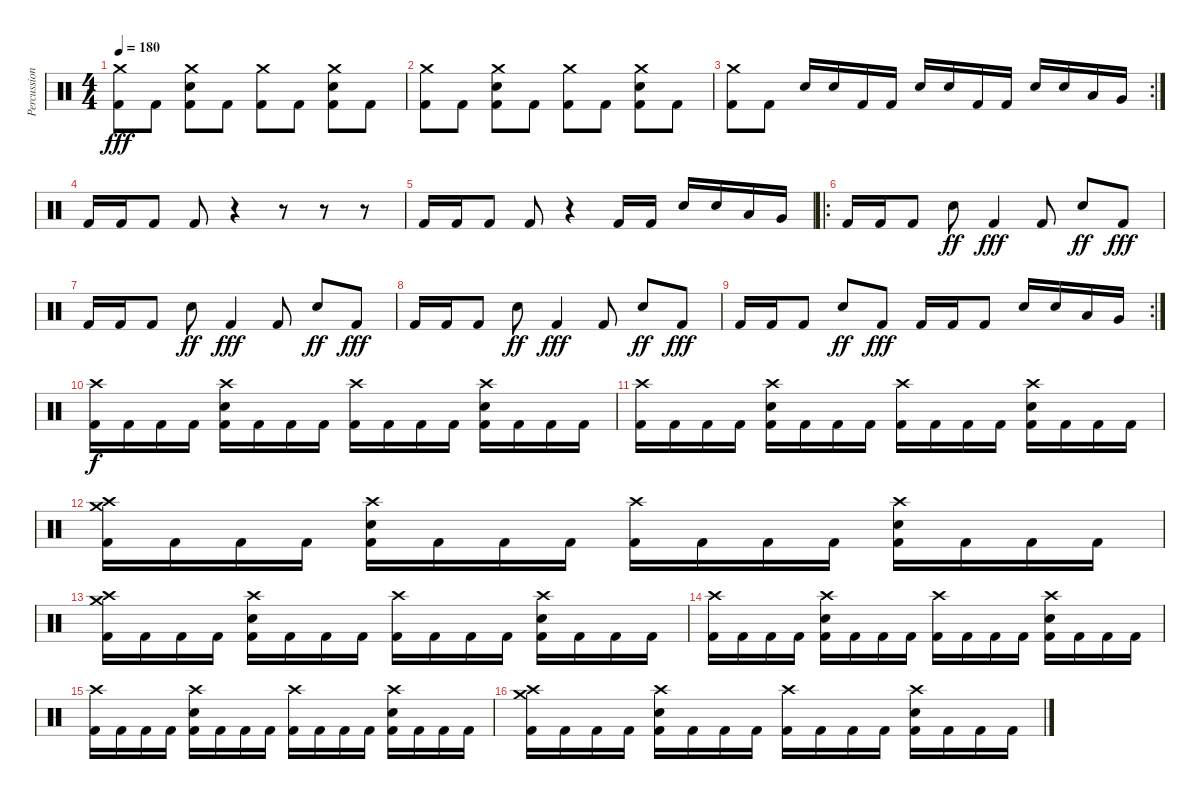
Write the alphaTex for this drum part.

\track ("Percussion (Francisco Izquierdo)" "Percussion") {instrument percussion}
\staff {score}
\articulation defaults
\ts (4 4)
\tempo 180
\clef neutral
\ks c
("Crash medium (hit)" "Kick (hit) 2").8{dy fff} "Kick (hit) 2".8 ("Crash medium (hit)" "Electric Snare (hit)" "Kick (hit) 2").8 "Kick (hit) 2".8 ("Crash medium (hit)" "Kick (hit) 2").8 "Kick (hit) 2".8 ("Crash medium (hit)" "Electric Snare (hit)" "Kick (hit) 2").8 "Kick (hit) 2".8 |
("Crash medium (hit)" "Kick (hit) 2").8 "Kick (hit) 2".8 ("Crash medium (hit)" "Electric Snare (hit)" "Kick (hit) 2").8 "Kick (hit) 2".8 ("Crash medium (hit)" "Kick (hit) 2").8 "Kick (hit) 2".8 ("Crash medium (hit)" "Electric Snare (hit)" "Kick (hit) 2").8 "Kick (hit) 2".8 |
\rc 2
("Crash medium (hit)" "Kick (hit) 2").8 "Kick (hit) 2".8 "Electric Snare (hit)".16 "Electric Snare (hit)".16 "Kick (hit) 2".16 "Kick (hit) 2".16 "Electric Snare (hit)".16 "Electric Snare (hit)".16 "Kick (hit) 2".16 "Kick (hit) 2".16 "Electric Snare (hit)".16 "Electric Snare (hit)".16 "Low Tom (hit)".16 "Very Low Tom (hit)".16 |
"Kick (hit) 2".16 "Kick (hit) 2".16 "Kick (hit) 2".8 "Kick (hit) 2".8 r.4 r.8 r.8 r.8 |
"Kick (hit) 2".16 "Kick (hit) 2".16 "Kick (hit) 2".8 "Kick (hit) 2".8 r.4 "Kick (hit) 2".16 "Kick (hit) 2".16 "Electric Snare (hit)".16 "Electric Snare (hit)".16 "Low Tom (hit)".16 "Very Low Tom (hit)".16 |
\ro "Kick (hit) 2".16 "Kick (hit) 2".16 "Kick (hit) 2".8 "Electric Snare (hit)".8{dy ff} "Kick (hit) 2".4{dy fff} "Kick (hit) 2".8 "Electric Snare (hit)".8{dy ff} "Kick (hit) 2".8{dy fff}
|
"Kick (hit) 2".16 "Kick (hit) 2".16 "Kick (hit) 2".8 "Electric Snare (hit)".8{dy ff} "Kick (hit) 2".4{dy fff} "Kick (hit) 2".8 "Electric Snare (hit)".8{dy ff} "Kick (hit) 2".8{dy fff} |
"Kick (hit) 2".16 "Kick (hit) 2".16 "Kick (hit) 2".8 "Electric Snare (hit)".8{dy ff} "Kick (hit) 2".4{dy fff} "Kick (hit) 2".8 "Electric Snare (hit)".8{dy ff} "Kick (hit) 2".8{dy fff} |
\rc 2 "Kick (hit) 2".16 "Kick (hit) 2".16 "Kick (hit) 2".8 "Electric Snare (hit)".8{dy ff} "Kick (hit) 2".8{dy fff} "Kick (hit) 2".16 "Kick (hit) 2".16 "Kick (hit) 2".8 "Electric Snare (hit)".16 "Electric Snare (hit)".16 "Low Tom (hit)".16 "Very Low Tom (hit)".16
|
("Crash high (hit)" "Kick (hit) 2").16{dy f} "Kick (hit) 2".16 "Kick (hit) 2".16 "Kick (hit) 2".16 ("Crash high (hit)" "Electric Snare (hit)" "Kick (hit) 2").16 "Kick (hit) 2".16 "Kick (hit) 2".16 "Kick (hit) 2".16 ("Crash high (hit)" "Kick (hit) 2").16 "Kick (hit) 2".16 "Kick (hit) 2".16 "Kick (hit) 2".16 ("Crash high (hit)" "Electric Snare (hit)" "Kick (hit) 2").16 "Kick (hit) 2".16 "Kick (hit) 2".16 "Kick (hit) 2".16 |
("Crash high (hit)" "Kick (hit) 2").16 "Kick (hit) 2".16 "Kick (hit) 2".16 "Kick (hit) 2".16 ("Crash high (hit)" "Electric Snare (hit)" "Kick (hit) 2").16 "Kick (hit) 2".16 "Kick (hit) 2".16 "Kick (hit) 2".16 ("Crash high (hit)" "Kick (hit) 2").16 "Kick (hit) 2".16 "Kick (hit) 2".16 "Kick (hit) 2".16 ("Crash high (hit)" "Electric Snare (hit)" "Kick (hit) 2").16 "Kick (hit) 2".16 "Kick (hit) 2".16 "Kick (hit) 2".16 |
("Crash high (hit)" "Crash medium (hit)" "Kick (hit) 2").16 "Kick (hit) 2".16 "Kick (hit) 2".16 "Kick (hit) 2".16 ("Crash high (hit)" "Electric Snare (hit)" "Kick (hit) 2").16 "Kick (hit) 2".16 "Kick (hit) 2".16 "Kick (hit) 2".16 ("Crash high (hit)" "Kick (hit) 2").16 "Kick (hit) 2".16 "Kick (hit) 2".16 "Kick (hit) 2".16 ("Crash high (hit)" "Electric Snare (hit)" "Kick (hit) 2").16 "Kick (hit) 2".16 "Kick (hit) 2".16 "Kick (hit) 2".16 |
("Crash high (hit)" "Crash medium (hit)" "Kick (hit) 2").16 "Kick (hit) 2".16 "Kick (hit) 2".16 "Kick (hit) 2".16 ("Crash high (hit)" "Electric Snare (hit)" "Kick (hit) 2").16 "Kick (hit) 2".16 "Kick (hit) 2".16 "Kick (hit) 2".16 ("Crash high (hit)" "Kick (hit) 2").16 "Kick (hit) 2".16 "Kick (hit) 2".16 "Kick (hit) 2".16 ("Crash high (hit)" "Electric Snare (hit)" "Kick (hit) 2").16 "Kick (hit) 2".16 "Kick (hit) 2".16 "Kick (hit) 2".16 |
("Crash high (hit)" "Kick (hit) 2").16 "Kick (hit) 2".16 "Kick (hit) 2".16 "Kick (hit) 2".16 ("Crash high (hit)" "Electric Snare (hit)" "Kick (hit) 2").16 "Kick (hit) 2".16 "Kick (hit) 2".16 "Kick (hit) 2".16 ("Crash high (hit)" "Kick (hit) 2").16 "Kick (hit) 2".16 "Kick (hit) 2".16 "Kick (hit) 2".16 ("Crash high (hit)" "Electric Snare (hit)" "Kick (hit) 2").16 "Kick (hit) 2".16 "Kick (hit) 2".16 "Kick (hit) 2".16 |
("Crash high (hit)" "Kick (hit) 2").16 "Kick (hit) 2".16 "Kick (hit) 2".16 "Kick (hit) 2".16 ("Crash high (hit)" "Electric Snare (hit)" "Kick (hit) 2").16 "Kick (hit) 2".16 "Kick (hit) 2".16 "Kick (hit) 2".16 ("Crash high (hit)" "Kick (hit) 2").16 "Kick (hit) 2".16 "Kick (hit) 2".16 "Kick (hit) 2".16 ("Crash high (hit)" "Electric Snare (hit)" "Kick (hit) 2").16 "Kick (hit) 2".16 "Kick (hit) 2".16 "Kick (hit) 2".16 |
("Crash high (hit)" "Crash medium (hit)" "Kick (hit) 2").16 "Kick (hit) 2".16 "Kick (hit) 2".16 "Kick (hit) 2".16 ("Crash high (hit)" "Electric Snare (hit)" "Kick (hit) 2").16 "Kick (hit) 2".16 "Kick (hit) 2".16 "Kick (hit) 2".16 ("Crash high (hit)" "Kick (hit) 2").16 "Kick (hit) 2".16 "Kick (hit) 2".16 "Kick (hit) 2".16 ("Crash high (hit)" "Electric Snare (hit)" "Kick (hit) 2").16 "Kick (hit) 2".16 "Kick (hit) 2".16 "Kick (hit) 2".16
